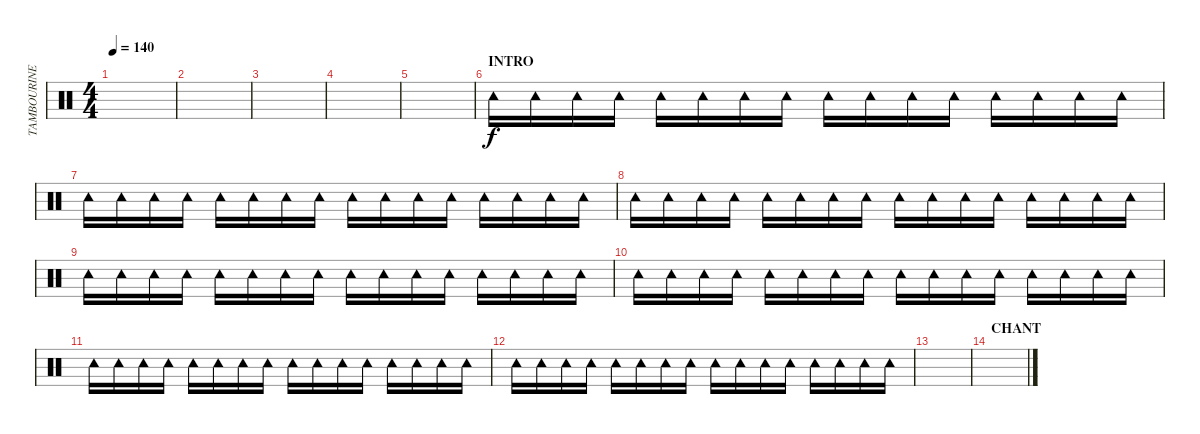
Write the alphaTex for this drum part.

\track ("TAMBOURINE" "TAMBOURINE") {instrument percussion}
\staff {score}
\articulation defaults
\ts (4 4)
\tempo 140
\clef neutral
\ks c
|
|
|
|
|
\section ("" "INTRO")
"Tambourine (hit)".16 "Tambourine (hit)".16 "Tambourine (hit)".16 "Tambourine (hit)".16 "Tambourine (hit)".16 "Tambourine (hit)".16 "Tambourine (hit)".16 "Tambourine (hit)".16 "Tambourine (hit)".16 "Tambourine (hit)".16 "Tambourine (hit)".16 "Tambourine (hit)".16 "Tambourine (hit)".16 "Tambourine (hit)".16 "Tambourine (hit)".16 "Tambourine (hit)".16 |
"Tambourine (hit)".16 "Tambourine (hit)".16 "Tambourine (hit)".16 "Tambourine (hit)".16 "Tambourine (hit)".16 "Tambourine (hit)".16 "Tambourine (hit)".16 "Tambourine (hit)".16 "Tambourine (hit)".16 "Tambourine (hit)".16 "Tambourine (hit)".16 "Tambourine (hit)".16 "Tambourine (hit)".16 "Tambourine (hit)".16 "Tambourine (hit)".16 "Tambourine (hit)".16 |
"Tambourine (hit)".16 "Tambourine (hit)".16 "Tambourine (hit)".16 "Tambourine (hit)".16 "Tambourine (hit)".16 "Tambourine (hit)".16 "Tambourine (hit)".16 "Tambourine (hit)".16 "Tambourine (hit)".16 "Tambourine (hit)".16 "Tambourine (hit)".16 "Tambourine (hit)".16 "Tambourine (hit)".16 "Tambourine (hit)".16 "Tambourine (hit)".16 "Tambourine (hit)".16 |
"Tambourine (hit)".16 "Tambourine (hit)".16 "Tambourine (hit)".16 "Tambourine (hit)".16 "Tambourine (hit)".16 "Tambourine (hit)".16 "Tambourine (hit)".16 "Tambourine (hit)".16 "Tambourine (hit)".16 "Tambourine (hit)".16 "Tambourine (hit)".16 "Tambourine (hit)".16 "Tambourine (hit)".16 "Tambourine (hit)".16 "Tambourine (hit)".16 "Tambourine (hit)".16 |
"Tambourine (hit)".16 "Tambourine (hit)".16 "Tambourine (hit)".16 "Tambourine (hit)".16 "Tambourine (hit)".16 "Tambourine (hit)".16 "Tambourine (hit)".16 "Tambourine (hit)".16 "Tambourine (hit)".16 "Tambourine (hit)".16 "Tambourine (hit)".16 "Tambourine (hit)".16 "Tambourine (hit)".16 "Tambourine (hit)".16 "Tambourine (hit)".16 "Tambourine (hit)".16 |
"Tambourine (hit)".16 "Tambourine (hit)".16 "Tambourine (hit)".16 "Tambourine (hit)".16 "Tambourine (hit)".16 "Tambourine (hit)".16 "Tambourine (hit)".16 "Tambourine (hit)".16 "Tambourine (hit)".16 "Tambourine (hit)".16 "Tambourine (hit)".16 "Tambourine (hit)".16 "Tambourine (hit)".16 "Tambourine (hit)".16 "Tambourine (hit)".16 "Tambourine (hit)".16 |
"Tambourine (hit)".16 "Tambourine (hit)".16 "Tambourine (hit)".16 "Tambourine (hit)".16 "Tambourine (hit)".16 "Tambourine (hit)".16 "Tambourine (hit)".16 "Tambourine (hit)".16 "Tambourine (hit)".16 "Tambourine (hit)".16 "Tambourine (hit)".16 "Tambourine (hit)".16 "Tambourine (hit)".16 "Tambourine (hit)".16 "Tambourine (hit)".16 "Tambourine (hit)".16 |
|
\section ("" "CHANT")
